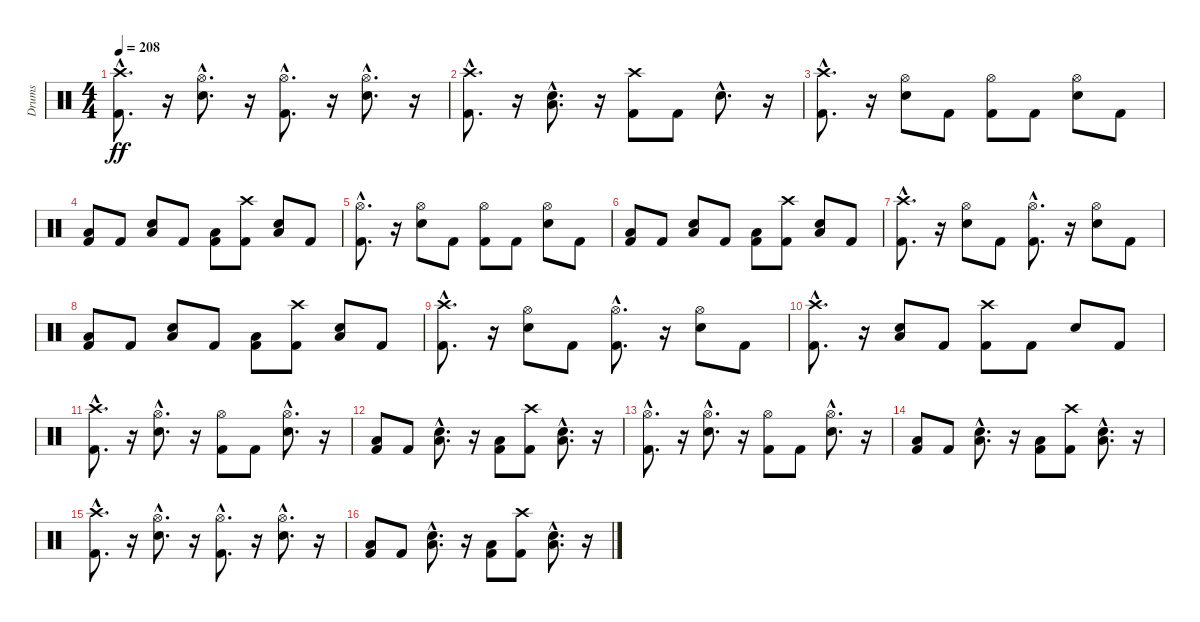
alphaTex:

\track ("Drums" "Drums") {instrument percussion}
\staff {score}
\articulation defaults
\ts (4 4)
\tempo 208
\clef neutral
\ks c
("Kick (hit) 2"{hac} "Crash high (hit)"{hac}).8{d dy ff} r.16 ("Snare (hit) 2"{hac} "Hi-Hat (open)"{hac}).8{d} r.16 ("Kick (hit) 2"{hac} "Hi-Hat (open)"{hac}).8{d} r.16 ("Snare (hit) 2"{hac} "Hi-Hat (open)"{hac}).8{d} r.16 |
("Kick (hit) 2"{hac} "Crash high (hit)"{hac}).8{d} r.16 ("Snare (hit) 2"{hac} "Low Tom (hit)"{hac}).8{d} r.16 ("Kick (hit) 2" "Crash high (hit)").8 "Kick (hit) 2".8 "Snare (hit) 2"{hac}.8{d} r.16 |
("Kick (hit) 2"{hac} "Crash high (hit)"{hac}).8{d} r.16 ("Snare (hit) 2" "Hi-Hat (open)").8 "Kick (hit) 2".8 ("Kick (hit) 2" "Hi-Hat (open)").8 "Kick (hit) 2".8 ("Snare (hit) 2" "Hi-Hat (open)").8 "Kick (hit) 2".8 |
("Kick (hit) 2" "Low Tom (hit)").8 "Kick (hit) 2".8 ("Snare (hit) 2" "Low Tom (hit)").8 "Kick (hit) 2".8 ("Kick (hit) 2" "Low Tom (hit)").8 ("Kick (hit) 2" "Crash high (hit)").8 ("Snare (hit) 2" "Low Tom (hit)").8 "Kick (hit) 2".8 |
("Kick (hit) 2"{hac} "Hi-Hat (open)"{hac}).8{d} r.16 ("Snare (hit) 2" "Hi-Hat (open)").8 "Kick (hit) 2".8 ("Kick (hit) 2" "Hi-Hat (open)").8 "Kick (hit) 2".8 ("Snare (hit) 2" "Hi-Hat (open)").8 "Kick (hit) 2".8 |
("Kick (hit) 2" "Low Tom (hit)").8 "Kick (hit) 2".8 ("Snare (hit) 2" "Low Tom (hit)").8 "Kick (hit) 2".8 ("Kick (hit) 2" "Low Tom (hit)").8 ("Kick (hit) 2" "Crash high (hit)").8 ("Snare (hit) 2" "Low Tom (hit)").8 "Kick (hit) 2".8 |
("Kick (hit) 2"{hac} "Crash high (hit)"{hac}).8{d} r.16 ("Snare (hit) 2" "Hi-Hat (open)").8 "Kick (hit) 2".8 ("Kick (hit) 2"{hac} "Hi-Hat (open)"{hac}).8{d} r.16 ("Snare (hit) 2" "Hi-Hat (open)").8 "Kick (hit) 2".8 |
("Kick (hit) 2" "Low Tom (hit)").8 "Kick (hit) 2".8 ("Snare (hit) 2" "Low Tom (hit)").8 "Kick (hit) 2".8 ("Kick (hit) 2" "Low Tom (hit)").8 ("Kick (hit) 2" "Crash high (hit)").8 ("Snare (hit) 2" "Low Tom (hit)").8 "Kick (hit) 2".8 |
("Kick (hit) 2"{hac} "Crash high (hit)"{hac}).8{d} r.16 ("Snare (hit) 2" "Hi-Hat (open)").8 "Kick (hit) 2".8 ("Kick (hit) 2"{hac} "Hi-Hat (open)"{hac}).8{d} r.16 ("Snare (hit) 2" "Hi-Hat (open)").8 "Kick (hit) 2".8 |
("Kick (hit) 2"{hac} "Crash high (hit)"{hac}).8{d} r.16 ("Snare (hit) 2" "Low Tom (hit)").8 "Kick (hit) 2".8 ("Kick (hit) 2" "Crash high (hit)").8 "Kick (hit) 2".8 "Snare (hit) 2".8 "Kick (hit) 2".8 |
("Kick (hit) 2"{hac} "Crash high (hit)"{hac}).8{d} r.16 ("Snare (hit) 2"{hac} "Hi-Hat (open)"{hac}).8{d} r.16 ("Kick (hit) 2" "Hi-Hat (open)").8 "Kick (hit) 2".8 ("Snare (hit) 2"{hac} "Hi-Hat (open)"{hac}).8{d} r.16 |
("Kick (hit) 2" "Low Tom (hit)").8 "Kick (hit) 2".8 ("Snare (hit) 2"{hac} "Low Tom (hit)"{hac}).8{d} r.16 ("Kick (hit) 2" "Low Tom (hit)").8 ("Kick (hit) 2" "Crash high (hit)").8 ("Snare (hit) 2"{hac} "Low Tom (hit)"{hac}).8{d} r.16 |
("Kick (hit) 2"{hac} "Hi-Hat (open)"{hac}).8{d} r.16 ("Snare (hit) 2"{hac} "Hi-Hat (open)"{hac}).8{d} r.16 ("Kick (hit) 2" "Hi-Hat (open)").8 "Kick (hit) 2".8 ("Snare (hit) 2"{hac} "Hi-Hat (open)"{hac}).8{d} r.16 |
("Kick (hit) 2" "Low Tom (hit)").8 "Kick (hit) 2".8 ("Snare (hit) 2"{hac} "Low Tom (hit)"{hac}).8{d} r.16 ("Kick (hit) 2" "Low Tom (hit)").8 ("Kick (hit) 2" "Crash high (hit)").8 ("Snare (hit) 2"{hac} "Low Tom (hit)"{hac}).8{d} r.16 |
("Kick (hit) 2"{hac} "Crash high (hit)"{hac}).8{d} r.16 ("Snare (hit) 2"{hac} "Hi-Hat (open)"{hac}).8{d} r.16 ("Kick (hit) 2"{hac} "Hi-Hat (open)"{hac}).8{d} r.16 ("Snare (hit) 2"{hac} "Hi-Hat (open)"{hac}).8{d} r.16 |
("Kick (hit) 2" "Low Tom (hit)").8 "Kick (hit) 2".8 ("Snare (hit) 2"{hac} "Low Tom (hit)"{hac}).8{d} r.16 ("Kick (hit) 2" "Low Tom (hit)").8 ("Kick (hit) 2" "Crash high (hit)").8 ("Snare (hit) 2"{hac} "Low Tom (hit)"{hac}).8{d} r.16
